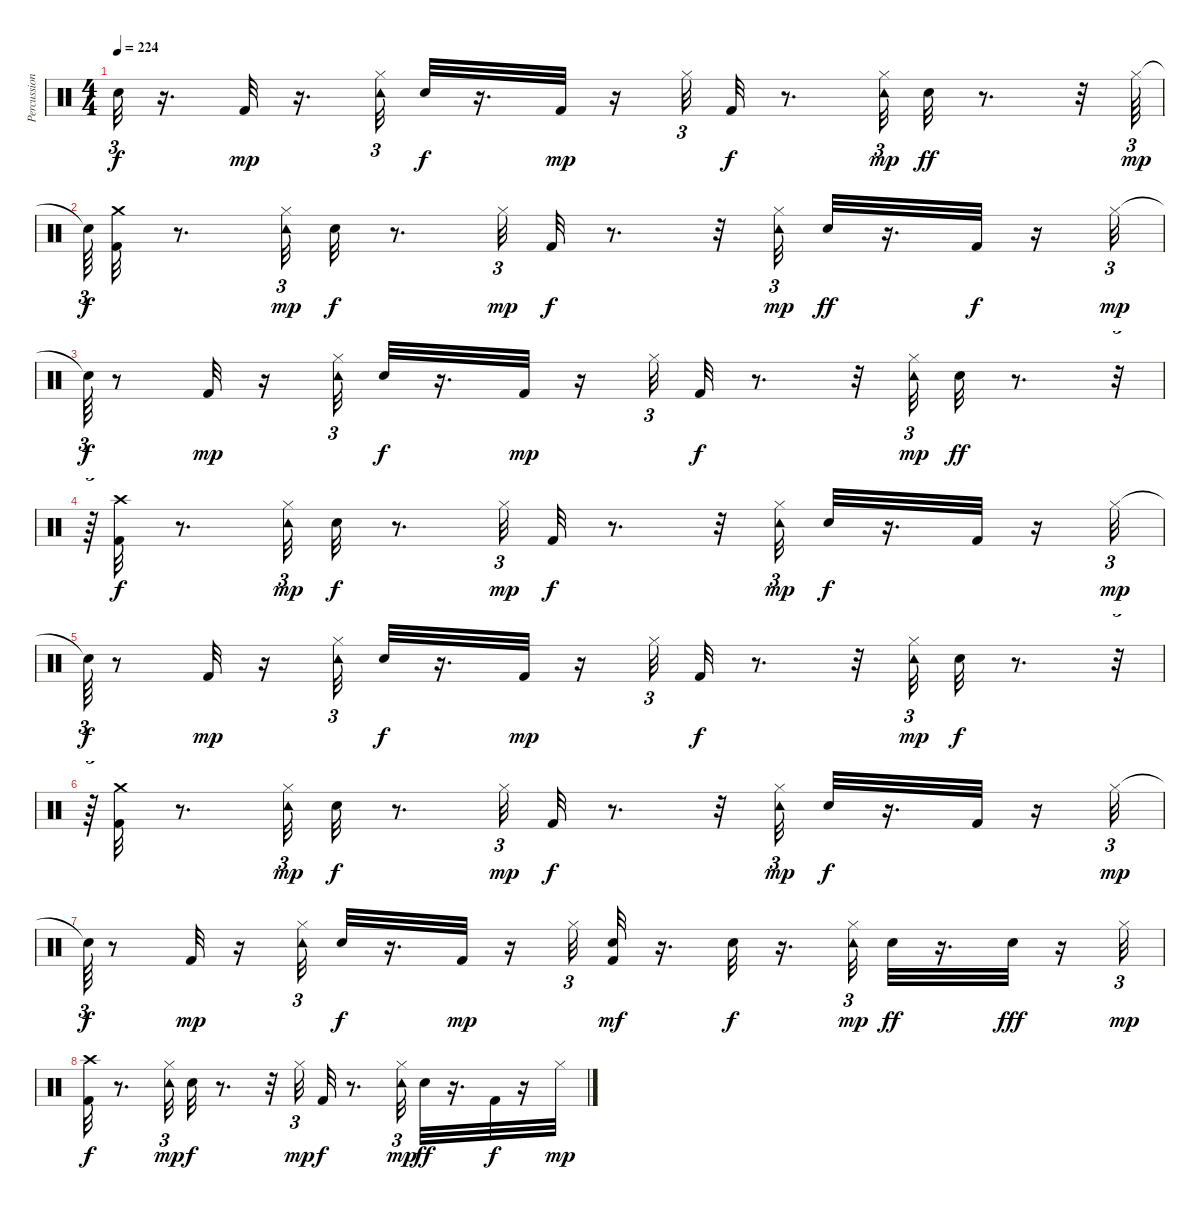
\track ("Percussion" "Percussion") {instrument percussion}
\staff {score}
\articulation defaults
\ts (4 4)
\tempo 224
\clef neutral
\ks c "Snare (hit)"{t}.32{tu (3 2) dy f}
r.16{d} "Kick (hit) 2".32{dy mp} r.16{d} ("Tambourine (hit)" "Hi-Hat (closed)").32{tu (3 2)} "Snare (hit) 2".32{dy f} r.16{d} "Kick (hit) 2".32{dy mp} r.16 "Hi-Hat (closed)".32{tu (3 2)} "Kick (hit) 2".32{dy f} r.8{d} ("Tambourine (hit)" "Hi-Hat (closed)").32{tu (3 2) dy mp} "Snare (hit) 2".32{dy ff} r.8{d} r.32 "Hi-Hat (closed)".64{tu (3 2) dy mp} |
"Snare (hit)"{t}.64{tu (3 2) dy f} ("Kick (hit) 2" "Crash medium (hit)").32 r.8{d} ("Tambourine (hit)" "Hi-Hat (closed)").32{tu (3 2) dy mp} "Snare (hit) 2".32{dy f} r.8{d} "Hi-Hat (closed)".32{tu (3 2) dy mp} "Kick (hit) 2".32{dy f} r.8{d} r.32 ("Tambourine (hit)" "Hi-Hat (closed)").32{tu (3 2) dy mp} "Snare (hit) 2".32{dy ff} r.16{d} "Kick (hit) 2".32{dy f} r.16 "Hi-Hat (closed)".32{tu (3 2) dy mp} |
"Snare (hit)"{t}.64{tu (3 2) dy f} r.8 "Kick (hit) 2".32{dy mp} r.16 ("Tambourine (hit)" "Hi-Hat (closed)").32{tu (3 2)} "Snare (hit) 2".32{dy f} r.16{d} "Kick (hit) 2".32{dy mp} r.16 "Hi-Hat (closed)".32{tu (3 2)} "Kick (hit) 2".32{dy f} r.8{d} r.32 ("Tambourine (hit)" "Hi-Hat (closed)").32{tu (3 2) dy mp} "Snare (hit) 2".32{dy ff} r.8{d} r.32{tu (3 2)} |
r.64{tu (3 2)} ("Kick (hit) 2" "Crash high (hit)").32{dy f} r.8{d} ("Tambourine (hit)" "Hi-Hat (closed)").32{tu (3 2) dy mp} "Snare (hit) 2".32{dy f} r.8{d} "Hi-Hat (closed)".32{tu (3 2) dy mp} "Kick (hit) 2".32{dy f} r.8{d} r.32 ("Tambourine (hit)" "Hi-Hat (closed)").32{tu (3 2) dy mp} "Snare (hit) 2".32{dy f} r.16{d} "Kick (hit) 2".32 r.16 "Hi-Hat (closed)".32{tu (3 2) dy mp} |
"Snare (hit)"{t}.64{tu (3 2) dy f} r.8 "Kick (hit) 2".32{dy mp} r.16 ("Tambourine (hit)" "Hi-Hat (closed)").32{tu (3 2)} "Snare (hit) 2".32{dy f} r.16{d} "Kick (hit) 2".32{dy mp} r.16 "Hi-Hat (closed)".32{tu (3 2)} "Kick (hit) 2".32{dy f} r.8{d} r.32 ("Tambourine (hit)" "Hi-Hat (closed)").32{tu (3 2) dy mp} "Snare (hit) 2".32{dy f} r.8{d} r.32{tu (3 2)} |
r.64{tu (3 2)} ("Kick (hit) 2" "Crash medium (hit)").32 r.8{d} ("Tambourine (hit)" "Hi-Hat (closed)").32{tu (3 2) dy mp} "Snare (hit) 2".32{dy f} r.8{d} "Hi-Hat (closed)".32{tu (3 2) dy mp} "Kick (hit) 2".32{dy f} r.8{d} r.32 ("Tambourine (hit)" "Hi-Hat (closed)").32{tu (3 2) dy mp} "Snare (hit) 2".32{dy f} r.16{d} "Kick (hit) 2".32 r.16 "Hi-Hat (closed)".32{tu (3 2) dy mp} |
"Snare (hit)"{t}.64{tu (3 2) dy f} r.8 "Kick (hit) 2".32{dy mp} r.16 ("Tambourine (hit)" "Hi-Hat (closed)").32{tu (3 2)} "Snare (hit) 2".32{dy f} r.16{d} "Kick (hit) 2".32{dy mp} r.16 "Hi-Hat (closed)".32{tu (3 2)} ("Kick (hit) 2" "Snare (hit) 2").32{dy mf} r.16{d} "Snare (hit) 2".32{dy f} r.16{d} ("Tambourine (hit)" "Hi-Hat (closed)").32{tu (3 2) dy mp} "Snare (hit) 2".32{dy ff} r.16{d} "Snare (hit) 2".32{dy fff} r.16 "Hi-Hat (closed)".32{tu (3 2) dy mp} |
("Kick (hit) 2" "Crash high (hit)").32{dy f} r.8{d} ("Tambourine (hit)" "Hi-Hat (closed)").32{tu (3 2) dy mp} "Snare (hit) 2".32{dy f} r.8{d} r.32 "Hi-Hat (closed)".32{tu (3 2) dy mp} "Kick (hit) 2".32{dy f} r.8{d} ("Tambourine (hit)" "Hi-Hat (closed)").32{tu (3 2) dy mp} "Snare (hit) 2".32{dy ff} r.16{d} "Kick (hit) 2".32{dy f} r.16 "Hi-Hat (closed)".32{dy mp}
